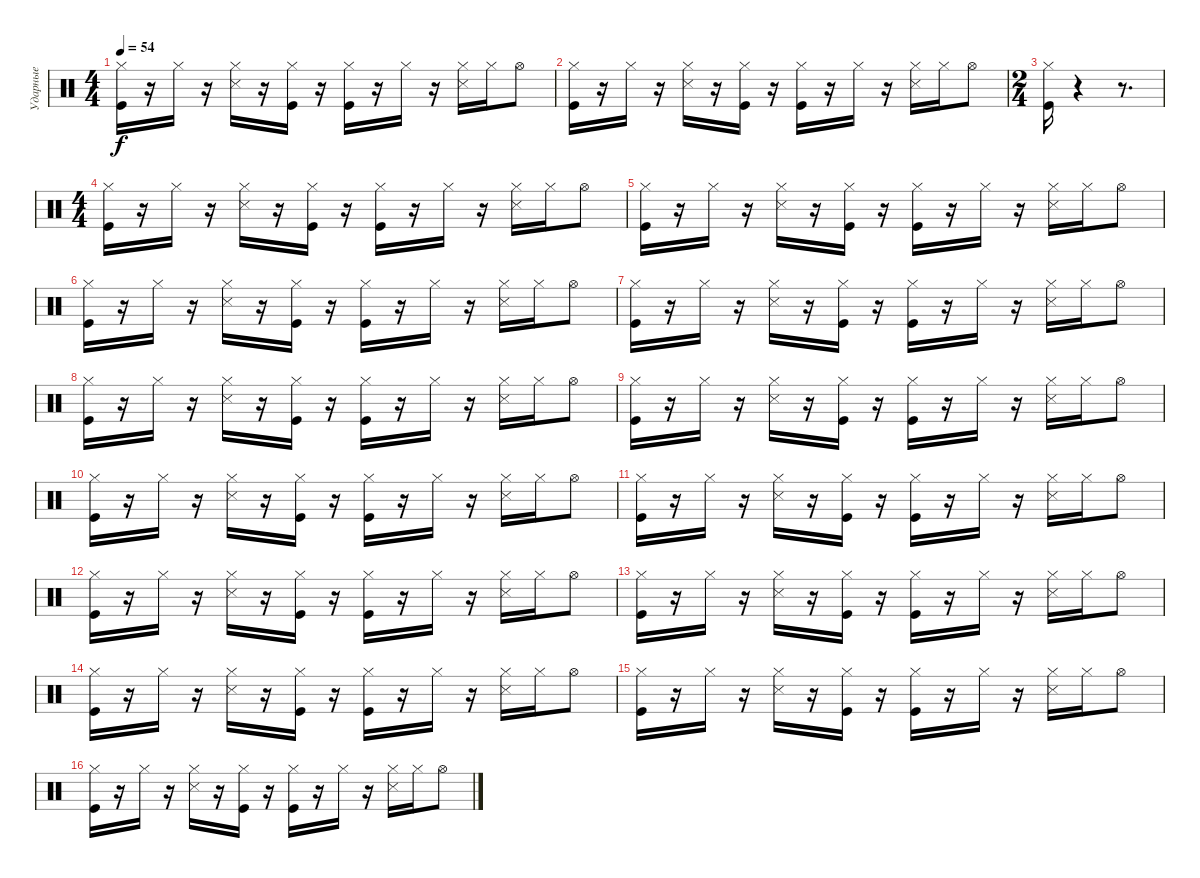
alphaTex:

\track ("Ударные" "Ударные") {instrument percussion}
\staff {score}
\articulation defaults
\ts (4 4)
\tempo 54
\clef neutral
\ks c
("Kick (hit)" "Hi-Hat (closed)").16{dy f} r.16 "Hi-Hat (closed)".16 r.16 ("Snare (side stick) 3" "Hi-Hat (closed)").16 r.16 ("Kick (hit)" "Hi-Hat (closed)").16 r.16 ("Kick (hit)" "Hi-Hat (closed)").16 r.16 "Hi-Hat (closed)".16 r.16 ("Hi-Hat (closed)" "Snare (side stick) 3").16 "Hi-Hat (closed)".16 "Hi-Hat (open)".8 |
("Kick (hit)" "Hi-Hat (closed)").16 r.16 "Hi-Hat (closed)".16 r.16 ("Snare (side stick) 3" "Hi-Hat (closed)").16 r.16 ("Kick (hit)" "Hi-Hat (closed)").16 r.16 ("Kick (hit)" "Hi-Hat (closed)").16 r.16 "Hi-Hat (closed)".16 r.16 ("Hi-Hat (closed)" "Snare (side stick) 3").16 "Hi-Hat (closed)".16 "Hi-Hat (open)".8 |
\ts (2 4)
("Hi-Hat (closed)" "Kick (hit)").16 r.4 r.8{d} |
\ts (4 4)
("Kick (hit)" "Hi-Hat (closed)").16 r.16 "Hi-Hat (closed)".16 r.16 ("Snare (side stick) 3" "Hi-Hat (closed)").16 r.16 ("Kick (hit)" "Hi-Hat (closed)").16 r.16 ("Kick (hit)" "Hi-Hat (closed)").16 r.16 "Hi-Hat (closed)".16 r.16 ("Hi-Hat (closed)" "Snare (side stick) 3").16 "Hi-Hat (closed)".16 "Hi-Hat (open)".8 |
("Kick (hit)" "Hi-Hat (closed)").16 r.16 "Hi-Hat (closed)".16 r.16 ("Snare (side stick) 3" "Hi-Hat (closed)").16 r.16 ("Kick (hit)" "Hi-Hat (closed)").16 r.16 ("Kick (hit)" "Hi-Hat (closed)").16 r.16 "Hi-Hat (closed)".16 r.16 ("Hi-Hat (closed)" "Snare (side stick) 3").16 "Hi-Hat (closed)".16 "Hi-Hat (open)".8 |
("Kick (hit)" "Hi-Hat (closed)").16 r.16 "Hi-Hat (closed)".16 r.16 ("Snare (side stick) 3" "Hi-Hat (closed)").16 r.16 ("Kick (hit)" "Hi-Hat (closed)").16 r.16 ("Kick (hit)" "Hi-Hat (closed)").16 r.16 "Hi-Hat (closed)".16 r.16 ("Hi-Hat (closed)" "Snare (side stick) 3").16 "Hi-Hat (closed)".16 "Hi-Hat (open)".8 |
("Kick (hit)" "Hi-Hat (closed)").16 r.16 "Hi-Hat (closed)".16 r.16 ("Snare (side stick) 3" "Hi-Hat (closed)").16 r.16 ("Kick (hit)" "Hi-Hat (closed)").16 r.16 ("Kick (hit)" "Hi-Hat (closed)").16 r.16 "Hi-Hat (closed)".16 r.16 ("Hi-Hat (closed)" "Snare (side stick) 3").16 "Hi-Hat (closed)".16 "Hi-Hat (open)".8 |
("Kick (hit)" "Hi-Hat (closed)").16 r.16 "Hi-Hat (closed)".16 r.16 ("Snare (side stick) 3" "Hi-Hat (closed)").16 r.16 ("Kick (hit)" "Hi-Hat (closed)").16 r.16 ("Kick (hit)" "Hi-Hat (closed)").16 r.16 "Hi-Hat (closed)".16 r.16 ("Hi-Hat (closed)" "Snare (side stick) 3").16 "Hi-Hat (closed)".16 "Hi-Hat (open)".8 |
("Kick (hit)" "Hi-Hat (closed)").16 r.16 "Hi-Hat (closed)".16 r.16 ("Snare (side stick) 3" "Hi-Hat (closed)").16 r.16 ("Kick (hit)" "Hi-Hat (closed)").16 r.16 ("Kick (hit)" "Hi-Hat (closed)").16 r.16 "Hi-Hat (closed)".16 r.16 ("Hi-Hat (closed)" "Snare (side stick) 3").16 "Hi-Hat (closed)".16 "Hi-Hat (open)".8 |
("Kick (hit)" "Hi-Hat (closed)").16 r.16 "Hi-Hat (closed)".16 r.16 ("Snare (side stick) 3" "Hi-Hat (closed)").16 r.16 ("Kick (hit)" "Hi-Hat (closed)").16 r.16 ("Kick (hit)" "Hi-Hat (closed)").16 r.16 "Hi-Hat (closed)".16 r.16 ("Hi-Hat (closed)" "Snare (side stick) 3").16 "Hi-Hat (closed)".16 "Hi-Hat (open)".8 |
("Kick (hit)" "Hi-Hat (closed)").16 r.16 "Hi-Hat (closed)".16 r.16 ("Snare (side stick) 3" "Hi-Hat (closed)").16 r.16 ("Kick (hit)" "Hi-Hat (closed)").16 r.16 ("Kick (hit)" "Hi-Hat (closed)").16 r.16 "Hi-Hat (closed)".16 r.16 ("Hi-Hat (closed)" "Snare (side stick) 3").16 "Hi-Hat (closed)".16 "Hi-Hat (open)".8 |
("Kick (hit)" "Hi-Hat (closed)").16 r.16 "Hi-Hat (closed)".16 r.16 ("Snare (side stick) 3" "Hi-Hat (closed)").16 r.16 ("Kick (hit)" "Hi-Hat (closed)").16 r.16 ("Kick (hit)" "Hi-Hat (closed)").16 r.16 "Hi-Hat (closed)".16 r.16 ("Hi-Hat (closed)" "Snare (side stick) 3").16 "Hi-Hat (closed)".16 "Hi-Hat (open)".8 |
("Kick (hit)" "Hi-Hat (closed)").16 r.16 "Hi-Hat (closed)".16 r.16 ("Snare (side stick) 3" "Hi-Hat (closed)").16 r.16 ("Kick (hit)" "Hi-Hat (closed)").16 r.16 ("Kick (hit)" "Hi-Hat (closed)").16 r.16 "Hi-Hat (closed)".16 r.16 ("Hi-Hat (closed)" "Snare (side stick) 3").16 "Hi-Hat (closed)".16 "Hi-Hat (open)".8 |
("Kick (hit)" "Hi-Hat (closed)").16 r.16 "Hi-Hat (closed)".16 r.16 ("Snare (side stick) 3" "Hi-Hat (closed)").16 r.16 ("Kick (hit)" "Hi-Hat (closed)").16 r.16 ("Kick (hit)" "Hi-Hat (closed)").16 r.16 "Hi-Hat (closed)".16 r.16 ("Hi-Hat (closed)" "Snare (side stick) 3").16 "Hi-Hat (closed)".16 "Hi-Hat (open)".8 |
("Kick (hit)" "Hi-Hat (closed)").16 r.16 "Hi-Hat (closed)".16 r.16 ("Snare (side stick) 3" "Hi-Hat (closed)").16 r.16 ("Kick (hit)" "Hi-Hat (closed)").16 r.16 ("Kick (hit)" "Hi-Hat (closed)").16 r.16 "Hi-Hat (closed)".16 r.16 ("Hi-Hat (closed)" "Snare (side stick) 3").16 "Hi-Hat (closed)".16 "Hi-Hat (open)".8 |
("Kick (hit)" "Hi-Hat (closed)").16 r.16 "Hi-Hat (closed)".16 r.16 ("Snare (side stick) 3" "Hi-Hat (closed)").16 r.16 ("Kick (hit)" "Hi-Hat (closed)").16 r.16 ("Kick (hit)" "Hi-Hat (closed)").16 r.16 "Hi-Hat (closed)".16 r.16 ("Hi-Hat (closed)" "Snare (side stick) 3").16 "Hi-Hat (closed)".16 "Hi-Hat (open)".8
